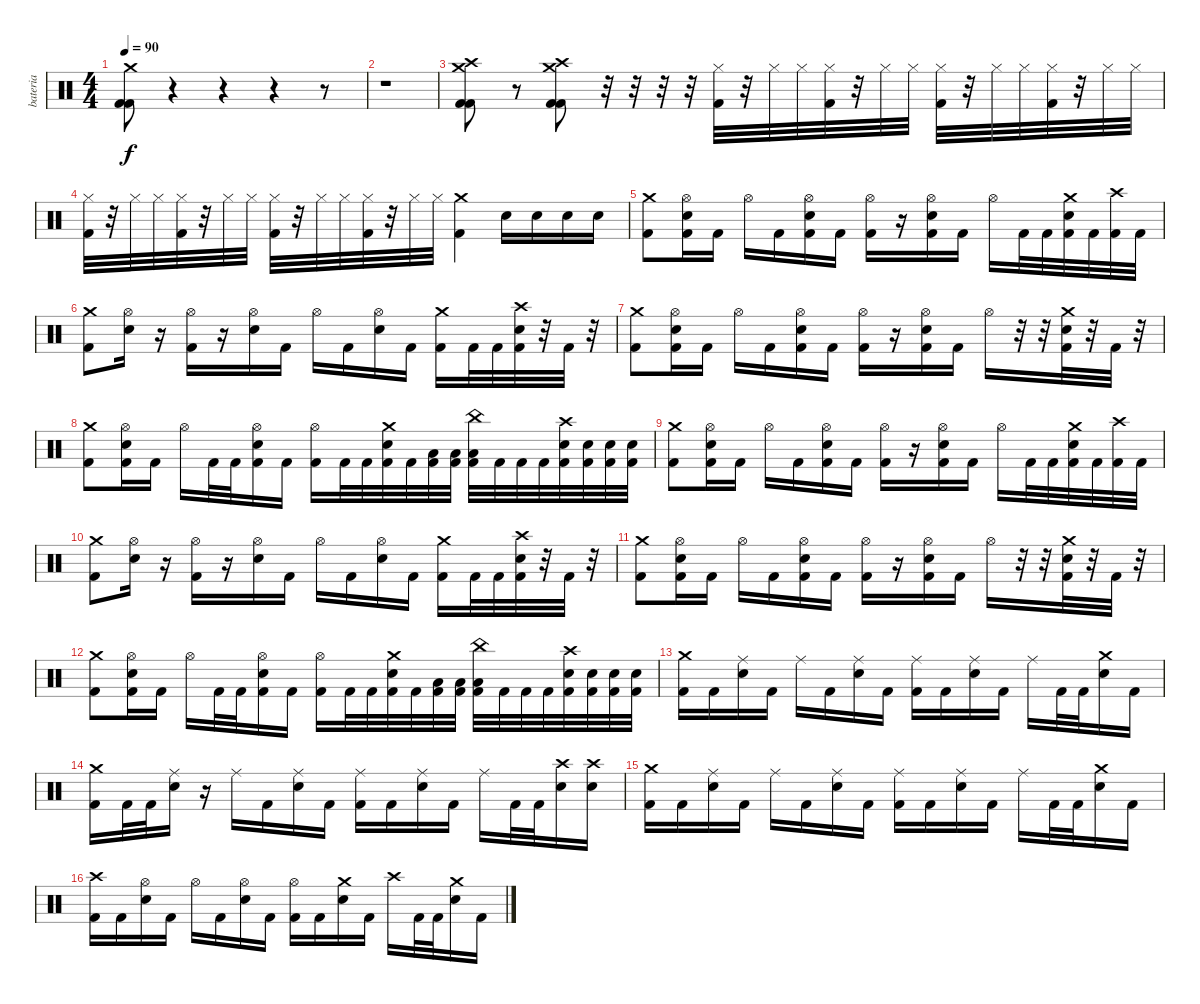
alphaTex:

\track ("bateria" "bateria") {instrument percussion}
\staff {score}
\articulation defaults
\ts (4 4)
\tempo 90
\clef neutral
\ks c
("Crash medium (hit)" "Kick (hit) 2" "Kick (hit) 2").8{dy f} r.4 r.4 r.4 r.8 |
r.1 |
("Crash medium (hit)" "Crash high (hit)" "Kick (hit) 2" "Kick (hit) 2").8 r.8 ("Crash medium (hit)" "Crash high (hit)" "Kick (hit) 2" "Kick (hit) 2").8 r.32 r.32 r.32 r.32 ("Hi-Hat (closed)" "Kick (hit) 2").32 r.32 "Hi-Hat (closed)".32 "Hi-Hat (closed)".32 ("Hi-Hat (closed)" "Kick (hit) 2").32 r.32 "Hi-Hat (closed)".32 "Hi-Hat (closed)".32 ("Hi-Hat (closed)" "Kick (hit) 2").32 r.32 "Hi-Hat (closed)".32 "Hi-Hat (closed)".32 ("Hi-Hat (closed)" "Kick (hit) 2").32 r.32 "Hi-Hat (closed)".32 "Hi-Hat (closed)".32 |
("Hi-Hat (closed)" "Kick (hit) 2").32 r.32 "Hi-Hat (closed)".32 "Hi-Hat (closed)".32 ("Hi-Hat (closed)" "Kick (hit) 2").32 r.32 "Hi-Hat (closed)".32 "Hi-Hat (closed)".32 ("Hi-Hat (closed)" "Kick (hit) 2").32 r.32 "Hi-Hat (closed)".32 "Hi-Hat (closed)".32 ("Hi-Hat (closed)" "Kick (hit) 2").32 r.32 "Hi-Hat (closed)".32 "Hi-Hat (closed)".32 ("Crash medium (hit)" "Kick (hit) 2").4 "Snare (hit) 2".16 "Snare (hit) 2".16 "Snare (hit) 2".16 "Snare (hit) 2".16 |
("Crash medium (hit)" "Kick (hit) 2").8 ("Hi-Hat (open)" "Snare (hit) 2" "Kick (hit) 2").16 "Kick (hit) 2".16 "Hi-Hat (open)".16 "Kick (hit) 2".16 ("Hi-Hat (open)" "Snare (hit) 2" "Kick (hit) 2").16 "Kick (hit) 2".16 ("Hi-Hat (open)" "Kick (hit) 2").16 r.16 ("Hi-Hat (open)" "Snare (hit) 2" "Kick (hit) 2").16 "Kick (hit) 2".16 "Hi-Hat (open)".16 "Kick (hit) 2".32 "Kick (hit) 2".32 ("Crash medium (hit)" "Snare (hit) 2" "Kick (hit) 2").32 "Kick (hit) 2".32 ("Crash high (hit)" "Kick (hit) 2").32 "Kick (hit) 2".32 |
("Crash medium (hit)" "Kick (hit) 2").8 ("Hi-Hat (open)" "Snare (hit) 2").16 r.16 ("Hi-Hat (open)" "Kick (hit) 2").16 r.16 ("Hi-Hat (open)" "Snare (hit) 2").16 "Kick (hit) 2".16 "Hi-Hat (open)".16 "Kick (hit) 2".16 ("Hi-Hat (open)" "Snare (hit) 2").16 "Kick (hit) 2".16 ("Crash medium (hit)" "Kick (hit) 2").16 "Kick (hit) 2".32 "Kick (hit) 2".32 ("Crash high (hit)" "Snare (hit) 2" "Kick (hit) 2").32 r.32 "Kick (hit) 2".32 r.32 |
("Crash medium (hit)" "Kick (hit) 2").8 ("Hi-Hat (open)" "Snare (hit) 2" "Kick (hit) 2").16 "Kick (hit) 2".16 "Hi-Hat (open)".16 "Kick (hit) 2".16 ("Hi-Hat (open)" "Snare (hit) 2" "Kick (hit) 2").16 "Kick (hit) 2".16 ("Hi-Hat (open)" "Kick (hit) 2").16 r.16 ("Hi-Hat (open)" "Snare (hit) 2" "Kick (hit) 2").16 "Kick (hit) 2".16 "Hi-Hat (open)".16 r.32 r.32 ("Crash medium (hit)" "Snare (hit) 2" "Kick (hit) 2").32 r.32 "Kick (hit) 2".32 r.32 |
("Crash medium (hit)" "Kick (hit) 2").8 ("Hi-Hat (open)" "Snare (hit) 2" "Kick (hit) 2").16 "Kick (hit) 2".16 "Hi-Hat (open)".16 "Kick (hit) 2".32 "Kick (hit) 2".32 ("Hi-Hat (open)" "Snare (hit) 2" "Kick (hit) 2").16 "Kick (hit) 2".16 ("Hi-Hat (open)" "Kick (hit) 2").16 "Kick (hit) 2".32 "Kick (hit) 2".32 ("Crash medium (hit)" "Snare (hit) 2" "Kick (hit) 2").32 "Kick (hit) 2".32 ("Low Tom (hit)" "Kick (hit) 2").32 ("Low Tom (hit)" "Kick (hit) 2").32 ("China (hit)" "Low Tom (hit)" "Kick (hit) 2").32 "Kick (hit) 2".32 "Kick (hit) 2".32 "Kick (hit) 2".32 ("Crash high (hit)" "Snare (hit) 2" "Kick (hit) 2").32 ("Snare (hit) 2" "Kick (hit) 2").32 ("Snare (hit) 2" "Kick (hit) 2").32 ("Snare (hit) 2" "Kick (hit) 2").32 |
("Crash medium (hit)" "Kick (hit) 2").8 ("Hi-Hat (open)" "Snare (hit) 2" "Kick (hit) 2").16 "Kick (hit) 2".16 "Hi-Hat (open)".16 "Kick (hit) 2".16 ("Hi-Hat (open)" "Snare (hit) 2" "Kick (hit) 2").16 "Kick (hit) 2".16 ("Hi-Hat (open)" "Kick (hit) 2").16 r.16 ("Hi-Hat (open)" "Snare (hit) 2" "Kick (hit) 2").16 "Kick (hit) 2".16 "Hi-Hat (open)".16 "Kick (hit) 2".32 "Kick (hit) 2".32 ("Crash medium (hit)" "Snare (hit) 2" "Kick (hit) 2").32 "Kick (hit) 2".32 ("Crash high (hit)" "Kick (hit) 2").32 "Kick (hit) 2".32 |
("Crash medium (hit)" "Kick (hit) 2").8 ("Hi-Hat (open)" "Snare (hit) 2").16 r.16 ("Hi-Hat (open)" "Kick (hit) 2").16 r.16 ("Hi-Hat (open)" "Snare (hit) 2").16 "Kick (hit) 2".16 "Hi-Hat (open)".16 "Kick (hit) 2".16 ("Hi-Hat (open)" "Snare (hit) 2").16 "Kick (hit) 2".16 ("Crash medium (hit)" "Kick (hit) 2").16 "Kick (hit) 2".32 "Kick (hit) 2".32 ("Crash high (hit)" "Snare (hit) 2" "Kick (hit) 2").32 r.32 "Kick (hit) 2".32 r.32 |
("Crash medium (hit)" "Kick (hit) 2").8 ("Hi-Hat (open)" "Snare (hit) 2" "Kick (hit) 2").16 "Kick (hit) 2".16 "Hi-Hat (open)".16 "Kick (hit) 2".16 ("Hi-Hat (open)" "Snare (hit) 2" "Kick (hit) 2").16 "Kick (hit) 2".16 ("Hi-Hat (open)" "Kick (hit) 2").16 r.16 ("Hi-Hat (open)" "Snare (hit) 2" "Kick (hit) 2").16 "Kick (hit) 2".16 "Hi-Hat (open)".16 r.32 r.32 ("Crash medium (hit)" "Snare (hit) 2" "Kick (hit) 2").32 r.32 "Kick (hit) 2".32 r.32 |
("Crash medium (hit)" "Kick (hit) 2").8 ("Hi-Hat (open)" "Snare (hit) 2" "Kick (hit) 2").16 "Kick (hit) 2".16 "Hi-Hat (open)".16 "Kick (hit) 2".32 "Kick (hit) 2".32 ("Hi-Hat (open)" "Snare (hit) 2" "Kick (hit) 2").16 "Kick (hit) 2".16 ("Hi-Hat (open)" "Kick (hit) 2").16 "Kick (hit) 2".32 "Kick (hit) 2".32 ("Crash medium (hit)" "Snare (hit) 2" "Kick (hit) 2").32 "Kick (hit) 2".32 ("Low Tom (hit)" "Kick (hit) 2").32 ("Low Tom (hit)" "Kick (hit) 2").32 ("China (hit)" "Low Tom (hit)" "Kick (hit) 2").32 "Kick (hit) 2".32 "Kick (hit) 2".32 "Kick (hit) 2".32 ("Crash high (hit)" "Snare (hit) 2" "Kick (hit) 2").32 ("Snare (hit) 2" "Kick (hit) 2").32 ("Snare (hit) 2" "Kick (hit) 2").32 ("Snare (hit) 2" "Kick (hit) 2").32 |
("Crash medium (hit)" "Kick (hit) 2").16 "Kick (hit) 2".16 ("Ride (middle)" "Snare (hit) 2").16 "Kick (hit) 2".16 "Ride (middle)".16 "Kick (hit) 2".16 ("Ride (middle)" "Snare (hit) 2").16 "Kick (hit) 2".16 ("Ride (middle)" "Kick (hit) 2").16 "Kick (hit) 2".16 ("Ride (middle)" "Snare (hit) 2").16 "Kick (hit) 2".16 "Ride (middle)".16 "Kick (hit) 2".32 "Kick (hit) 2".32 ("Crash medium (hit)" "Snare (hit) 2").16 "Kick (hit) 2".16 |
("Crash medium (hit)" "Kick (hit) 2").16 "Kick (hit) 2".32 "Kick (hit) 2".32 ("Ride (middle)" "Snare (hit) 2").16 r.16 "Ride (middle)".16 "Kick (hit) 2".16 ("Ride (middle)" "Snare (hit) 2").16 "Kick (hit) 2".16 ("Ride (middle)" "Kick (hit) 2").16 "Kick (hit) 2".16 ("Ride (middle)" "Snare (hit) 2").16 "Kick (hit) 2".16 "Ride (middle)".16 "Kick (hit) 2".32 "Kick (hit) 2".32 ("Crash high (hit)" "Snare (hit) 2").16 ("Crash high (hit)" "Snare (hit) 2").16 |
("Crash medium (hit)" "Kick (hit) 2").16 "Kick (hit) 2".16 ("Ride (middle)" "Snare (hit) 2").16 "Kick (hit) 2".16 "Ride (middle)".16 "Kick (hit) 2".16 ("Ride (middle)" "Snare (hit) 2").16 "Kick (hit) 2".16 ("Ride (middle)" "Kick (hit) 2").16 "Kick (hit) 2".16 ("Ride (middle)" "Snare (hit) 2").16 "Kick (hit) 2".16 "Ride (middle)".16 "Kick (hit) 2".32 "Kick (hit) 2".32 ("Crash medium (hit)" "Snare (hit) 2").16 "Kick (hit) 2".16 |
("Crash high (hit)" "Kick (hit) 2").16 "Kick (hit) 2".16 ("Hi-Hat (open)" "Snare (hit) 2").16 "Kick (hit) 2".16 "Hi-Hat (open)".16 "Kick (hit) 2".16 ("Hi-Hat (open)" "Snare (hit) 2").16 "Kick (hit) 2".16 ("Hi-Hat (open)" "Kick (hit) 2").16 "Kick (hit) 2".16 ("Crash medium (hit)" "Snare (hit) 2").16 "Kick (hit) 2".16 "Crash high (hit)".16 "Kick (hit) 2".32 "Kick (hit) 2".32 ("Crash medium (hit)" "Snare (hit) 2").16 "Kick (hit) 2".16
